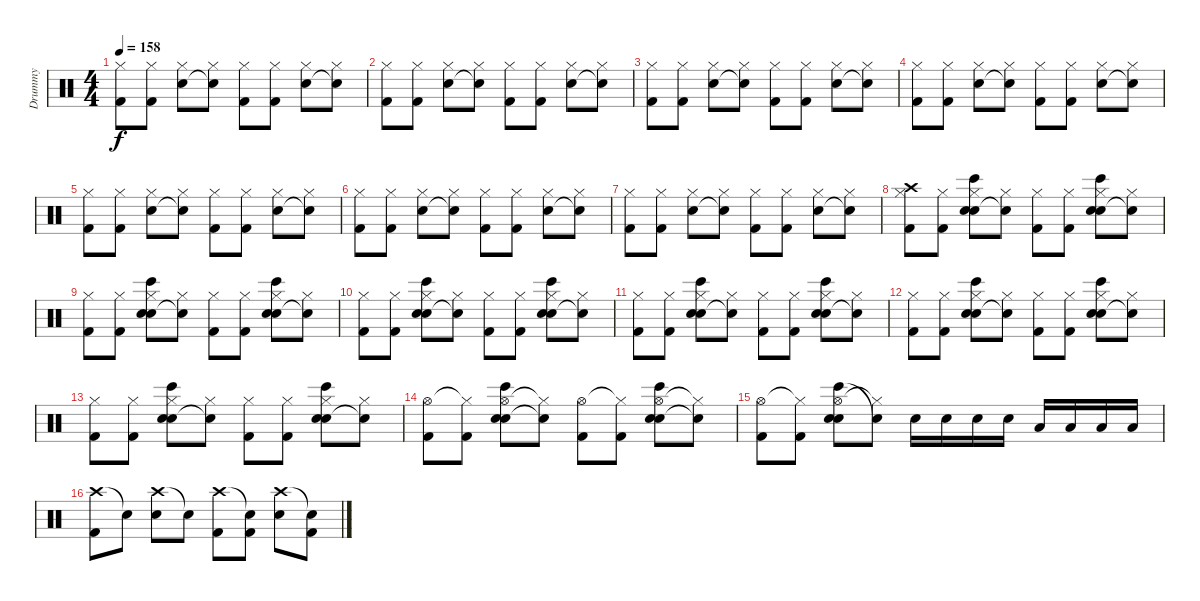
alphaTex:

\track ("Drummy" "Drummy") {instrument percussion bank 127}
\staff {score}
\articulation defaults
\ts (4 4)
\tempo 158
\clef neutral
\ks c
("Hi-Hat (closed)" "Kick (hit) 2").8{dy f} ("Hi-Hat (closed)" "Kick (hit) 2").8 ("Hi-Hat (closed)" "Electric Snare (hit)").8 ("Hi-Hat (closed)" "Snare (hit)"{t}).8 ("Hi-Hat (closed)" "Kick (hit) 2").8 ("Hi-Hat (closed)" "Kick (hit) 2").8 ("Hi-Hat (closed)" "Electric Snare (hit)").8 ("Hi-Hat (closed)" "Snare (hit)"{t}).8 |
("Hi-Hat (closed)" "Kick (hit) 2").8 ("Hi-Hat (closed)" "Kick (hit) 2").8 ("Hi-Hat (closed)" "Electric Snare (hit)").8 ("Hi-Hat (closed)" "Snare (hit)"{t}).8 ("Hi-Hat (closed)" "Kick (hit) 2").8 ("Hi-Hat (closed)" "Kick (hit) 2").8 ("Hi-Hat (closed)" "Electric Snare (hit)").8 ("Hi-Hat (closed)" "Snare (hit)"{t}).8 |
("Hi-Hat (closed)" "Kick (hit) 2").8 ("Hi-Hat (closed)" "Kick (hit) 2").8 ("Hi-Hat (closed)" "Electric Snare (hit)").8 ("Hi-Hat (closed)" "Snare (hit)"{t}).8 ("Hi-Hat (closed)" "Kick (hit) 2").8 ("Hi-Hat (closed)" "Kick (hit) 2").8 ("Hi-Hat (closed)" "Electric Snare (hit)").8 ("Hi-Hat (closed)" "Snare (hit)"{t}).8 |
("Hi-Hat (closed)" "Kick (hit) 2").8 ("Hi-Hat (closed)" "Kick (hit) 2").8 ("Hi-Hat (closed)" "Electric Snare (hit)").8 ("Hi-Hat (closed)" "Snare (hit)"{t}).8 ("Hi-Hat (closed)" "Kick (hit) 2").8 ("Hi-Hat (closed)" "Kick (hit) 2").8 ("Hi-Hat (closed)" "Electric Snare (hit)").8 ("Hi-Hat (closed)" "Snare (hit)"{t}).8 |
("Hi-Hat (closed)" "Kick (hit) 2").8 ("Hi-Hat (closed)" "Kick (hit) 2").8 ("Hi-Hat (closed)" "Electric Snare (hit)").8 ("Hi-Hat (closed)" "Snare (hit)"{t}).8 ("Hi-Hat (closed)" "Kick (hit) 2").8 ("Hi-Hat (closed)" "Kick (hit) 2").8 ("Hi-Hat (closed)" "Electric Snare (hit)").8 ("Hi-Hat (closed)" "Snare (hit)"{t}).8 |
("Hi-Hat (closed)" "Kick (hit) 2").8 ("Hi-Hat (closed)" "Kick (hit) 2").8 ("Hi-Hat (closed)" "Electric Snare (hit)").8 ("Hi-Hat (closed)" "Snare (hit)"{t}).8 ("Hi-Hat (closed)" "Kick (hit) 2").8 ("Hi-Hat (closed)" "Kick (hit) 2").8 ("Hi-Hat (closed)" "Electric Snare (hit)").8 ("Hi-Hat (closed)" "Snare (hit)"{t}).8 |
("Hi-Hat (closed)" "Kick (hit) 2").8 ("Hi-Hat (closed)" "Kick (hit) 2").8 ("Hi-Hat (closed)" "Electric Snare (hit)").8 ("Hi-Hat (closed)" "Snare (hit)"{t}).8 ("Hi-Hat (closed)" "Kick (hit) 2").8 ("Hi-Hat (closed)" "Kick (hit) 2").8 ("Hi-Hat (closed)" "Electric Snare (hit)").8 ("Hi-Hat (closed)" "Snare (hit)"{t}).8 |
("Hi-Hat (closed)" "Crash high (hit)" "Kick (hit) 2").8 ("Hi-Hat (closed)" "Kick (hit) 2").8 ("Hi-Hat (closed)" "Hand Clap (hit)" "Bongo High (hit)" "Electric Snare (hit)").8 ("Hi-Hat (closed)" "Snare (hit)"{t}).8 ("Hi-Hat (closed)" "Kick (hit) 2").8 ("Hi-Hat (closed)" "Kick (hit) 2").8 ("Hi-Hat (closed)" "Hand Clap (hit)" "Bongo High (hit)" "Electric Snare (hit)").8 ("Hi-Hat (closed)" "Snare (hit)"{t}).8 |
("Hi-Hat (closed)" "Kick (hit) 2").8 ("Hi-Hat (closed)" "Kick (hit) 2").8 ("Hi-Hat (closed)" "Hand Clap (hit)" "Bongo High (hit)" "Electric Snare (hit)").8 ("Hi-Hat (closed)" "Snare (hit)"{t}).8 ("Hi-Hat (closed)" "Kick (hit) 2").8 ("Hi-Hat (closed)" "Kick (hit) 2").8 ("Hi-Hat (closed)" "Hand Clap (hit)" "Bongo High (hit)" "Electric Snare (hit)").8 ("Hi-Hat (closed)" "Snare (hit)"{t}).8 |
("Hi-Hat (closed)" "Kick (hit) 2").8 ("Hi-Hat (closed)" "Kick (hit) 2").8 ("Hi-Hat (closed)" "Hand Clap (hit)" "Bongo High (hit)" "Electric Snare (hit)").8 ("Hi-Hat (closed)" "Snare (hit)"{t}).8 ("Hi-Hat (closed)" "Kick (hit) 2").8 ("Hi-Hat (closed)" "Kick (hit) 2").8 ("Hi-Hat (closed)" "Hand Clap (hit)" "Bongo High (hit)" "Electric Snare (hit)").8 ("Hi-Hat (closed)" "Snare (hit)"{t}).8 |
("Hi-Hat (closed)" "Kick (hit) 2").8 ("Hi-Hat (closed)" "Kick (hit) 2").8 ("Hi-Hat (closed)" "Hand Clap (hit)" "Bongo High (hit)" "Electric Snare (hit)").8 ("Hi-Hat (closed)" "Snare (hit)"{t}).8 ("Hi-Hat (closed)" "Kick (hit) 2").8 ("Hi-Hat (closed)" "Kick (hit) 2").8 ("Hi-Hat (closed)" "Hand Clap (hit)" "Bongo High (hit)" "Electric Snare (hit)").8 ("Hi-Hat (closed)" "Snare (hit)"{t}).8 |
("Hi-Hat (closed)" "Kick (hit) 2").8 ("Hi-Hat (closed)" "Kick (hit) 2").8 ("Hi-Hat (closed)" "Hand Clap (hit)" "Bongo High (hit)" "Electric Snare (hit)").8 ("Hi-Hat (closed)" "Snare (hit)"{t}).8 ("Hi-Hat (closed)" "Kick (hit) 2").8 ("Hi-Hat (closed)" "Kick (hit) 2").8 ("Hi-Hat (closed)" "Hand Clap (hit)" "Bongo High (hit)" "Electric Snare (hit)").8 ("Hi-Hat (closed)" "Snare (hit)"{t}).8 |
("Hi-Hat (closed)" "Kick (hit) 2").8 ("Hi-Hat (closed)" "Kick (hit) 2").8 ("Hi-Hat (closed)" "Hand Clap (hit)" "Bongo High (hit)" "Electric Snare (hit)").8 ("Hi-Hat (closed)" "Snare (hit)"{t}).8 ("Hi-Hat (closed)" "Kick (hit) 2").8 ("Hi-Hat (closed)" "Kick (hit) 2").8 ("Hi-Hat (closed)" "Hand Clap (hit)" "Bongo High (hit)" "Electric Snare (hit)").8 ("Hi-Hat (closed)" "Snare (hit)"{t}).8 |
("Hi-Hat (open)" "Kick (hit) 2").8 ("Hi-Hat (closed)"{t} "Kick (hit) 2").8 ("Hi-Hat (open)" "Hand Clap (hit)" "Bongo High (hit)" "Electric Snare (hit)").8 ("Hi-Hat (closed)"{t} "Snare (hit)"{t}).8 ("Hi-Hat (open)" "Kick (hit) 2").8 ("Hi-Hat (closed)"{t} "Kick (hit) 2").8 ("Hi-Hat (open)" "Hand Clap (hit)" "Bongo High (hit)" "Electric Snare (hit)").8 ("Hi-Hat (closed)"{t} "Snare (hit)"{t}).8 |
("Hi-Hat (open)" "Kick (hit) 2").8 ("Hi-Hat (closed)"{t} "Kick (hit) 2").8 ("Hi-Hat (open)" "Bongo High (hit)" "Hand Clap (hit)" "Electric Snare (hit)").8 ("Hi-Hat (closed)"{t} "Snare (hit)"{t}).8 "Electric Snare (hit)".16 "Electric Snare (hit)".16 "Electric Snare (hit)".16 "Electric Snare (hit)".16 "Low Tom (hit)".16 "Low Tom (hit)".16 "Low Tom (hit)".16 "Low Tom (hit)".16 |
("Crash high (hit)" "Kick (hit) 2").8 "Snare (hit)"{t}.8 ("Crash high (hit)" "Electric Snare (hit)").8 "Snare (hit)"{t}.8 ("Crash high (hit)" "Kick (hit) 2").8 ("Snare (hit)"{t} "Kick (hit) 2").8 ("Crash high (hit)" "Electric Snare (hit)").8 ("Snare (hit)"{t} "Kick (hit) 2").8
